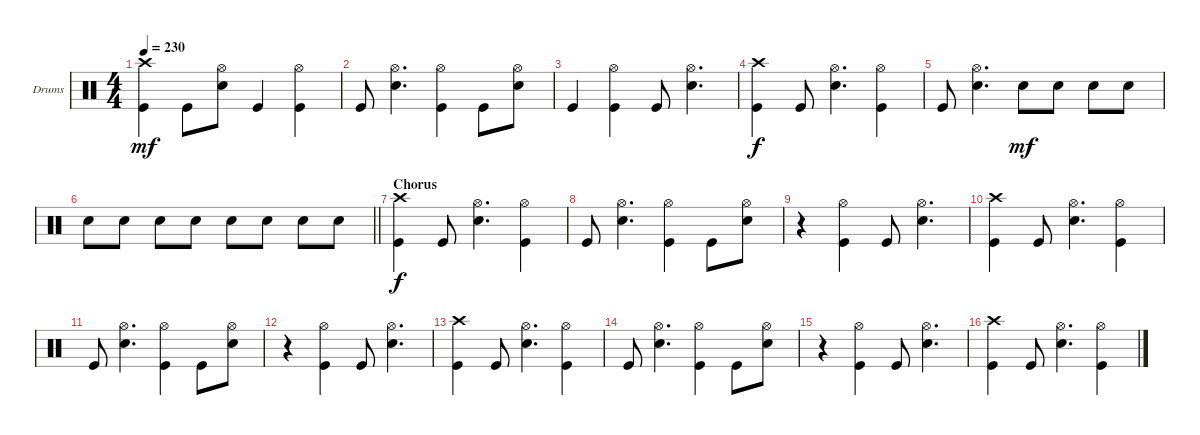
\bracketExtendMode groupsimilarinstruments
\firstSystemTrackNameOrientation horizontal
\otherSystemsTrackNameOrientation horizontal
\track ("Drumkit" "Drums") {instrument percussion}
\staff {score}
\articulation defaults
\ts (4 4)
\tempo 230
\clef neutral
\ks c
("Crash high (hit)" "Kick (hit)").4{dy mf} "Kick (hit)".8 ("Hi-Hat (open)" "Snare (hit) 2").8 "Kick (hit)".4 ("Hi-Hat (open)" "Kick (hit)").4 |
"Kick (hit)".8 ("Hi-Hat (open)" "Snare (hit) 2").4{d} ("Hi-Hat (open)" "Kick (hit)").4 "Kick (hit)".8 ("Hi-Hat (open)" "Snare (hit) 2").8 |
"Kick (hit)".4 ("Hi-Hat (open)" "Kick (hit)").4 "Kick (hit)".8 ("Hi-Hat (open)" "Snare (hit) 2").4{d} |
("Crash high (hit)" "Kick (hit)").4{dy f} "Kick (hit)".8 ("Hi-Hat (open)" "Snare (hit) 2").4{d} ("Hi-Hat (open)" "Kick (hit)").4 |
"Kick (hit)".8 ("Hi-Hat (open)" "Snare (hit) 2").4{d} "Snare (hit) 2".8{dy mf} "Snare (hit) 2".8 "Snare (hit) 2".8 "Snare (hit) 2".8 |
\barLineRight lightlight "Snare (hit) 2".8 "Snare (hit) 2".8 "Snare (hit) 2".8 "Snare (hit) 2".8 "Snare (hit) 2".8 "Snare (hit) 2".8 "Snare (hit) 2".8 "Snare (hit) 2".8
|
\section ("" "Chorus")
("Crash high (hit)" "Kick (hit)").4{dy f} "Kick (hit)".8 ("Hi-Hat (open)" "Snare (hit) 2").4{d} ("Hi-Hat (open)" "Kick (hit)").4 |
"Kick (hit)".8 ("Hi-Hat (open)" "Snare (hit) 2").4{d} ("Hi-Hat (open)" "Kick (hit)").4 "Kick (hit)".8 ("Hi-Hat (open)" "Snare (hit) 2").8 |
r.4 ("Hi-Hat (open)" "Kick (hit)").4 "Kick (hit)".8 ("Hi-Hat (open)" "Snare (hit) 2").4{d} |
("Crash high (hit)" "Kick (hit)").4 "Kick (hit)".8 ("Hi-Hat (open)" "Snare (hit) 2").4{d} ("Hi-Hat (open)" "Kick (hit)").4 |
"Kick (hit)".8 ("Hi-Hat (open)" "Snare (hit) 2").4{d} ("Hi-Hat (open)" "Kick (hit)").4 "Kick (hit)".8 ("Hi-Hat (open)" "Snare (hit) 2").8 |
r.4 ("Hi-Hat (open)" "Kick (hit)").4 "Kick (hit)".8 ("Hi-Hat (open)" "Snare (hit) 2").4{d} |
("Crash high (hit)" "Kick (hit)").4 "Kick (hit)".8 ("Hi-Hat (open)" "Snare (hit) 2").4{d} ("Hi-Hat (open)" "Kick (hit)").4 |
"Kick (hit)".8 ("Hi-Hat (open)" "Snare (hit) 2").4{d} ("Hi-Hat (open)" "Kick (hit)").4 "Kick (hit)".8 ("Hi-Hat (open)" "Snare (hit) 2").8 |
r.4 ("Hi-Hat (open)" "Kick (hit)").4 "Kick (hit)".8 ("Hi-Hat (open)" "Snare (hit) 2").4{d} |
("Crash high (hit)" "Kick (hit)").4 "Kick (hit)".8 ("Hi-Hat (open)" "Snare (hit) 2").4{d} ("Hi-Hat (open)" "Kick (hit)").4
